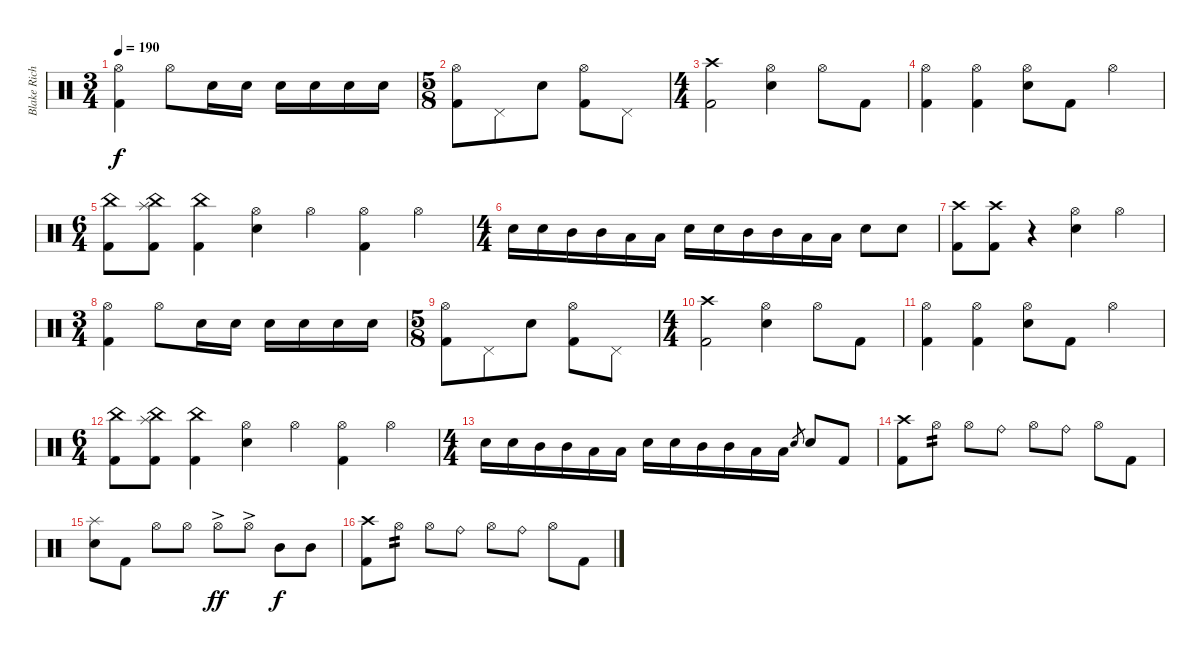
\track ("Blake Richardson" "Blake Rich") {instrument percussion}
\staff {score}
\articulation defaults
\ts (3 4)
\tempo 190
\clef neutral
\ks c
("Hi-Hat (open)" "Kick (hit) 2").4{dy f} "Hi-Hat (open)".8 "Electric Snare (hit)".16 "Electric Snare (hit)".16 "Electric Snare (hit)".16 "Electric Snare (hit)".16 "Electric Snare (hit)".16 "Electric Snare (hit)".16 |
\ts (5 8)
("Hi-Hat (open)" "Kick (hit) 2").8 "Pedal Hi-Hat (hit)".8 "Electric Snare (hit)".8 ("Hi-Hat (open)" "Kick (hit) 2").8 "Pedal Hi-Hat (hit)".8 |
\ts (4 4)
("Crash high (hit)" "Kick (hit) 2").2 ("Hi-Hat (open)" "Electric Snare (hit)").4 "Hi-Hat (open)".8 "Kick (hit) 2".8 |
("Hi-Hat (open)" "Kick (hit) 2").4 ("Hi-Hat (open)" "Kick (hit) 2").4 ("Hi-Hat (open)" "Electric Snare (hit)").8 "Kick (hit) 2".8 "Hi-Hat (open)".4 |
\ts (6 4)
("China (hit)" "Kick (hit) 2").8 ("China (hit)" "Splash (hit)" "Kick (hit) 2").8 ("China (hit)" "Kick (hit) 2").4 ("Hi-Hat (open)" "Electric Snare (hit)").4 "Hi-Hat (open)".4 ("Hi-Hat (open)" "Kick (hit) 2").4 "Hi-Hat (open)".4 |
\ts (4 4)
"Electric Snare (hit)".16 "Electric Snare (hit)".16 "Mid Tom (hit)".16 "Mid Tom (hit)".16{beam merge} "Low Tom (hit)".16 "Low Tom (hit)".16{beam split} "Electric Snare (hit)".16 "Electric Snare (hit)".16{beam merge} "Mid Tom (hit)".16 "Mid Tom (hit)".16 "Low Tom (hit)".16 "Low Tom (hit)".16 "Electric Snare (hit)".8 "Electric Snare (hit)".8 |
("Crash high (hit)" "Kick (hit) 2").8 ("Crash high (hit)" "Kick (hit) 2").8 r.4 ("Hi-Hat (open)" "Electric Snare (hit)").4 "Hi-Hat (open)".4 |
\ts (3 4)
("Hi-Hat (open)" "Kick (hit) 2").4 "Hi-Hat (open)".8 "Electric Snare (hit)".16 "Electric Snare (hit)".16 "Electric Snare (hit)".16 "Electric Snare (hit)".16 "Electric Snare (hit)".16 "Electric Snare (hit)".16 |
\ts (5 8)
("Hi-Hat (open)" "Kick (hit) 2").8 "Pedal Hi-Hat (hit)".8 "Electric Snare (hit)".8 ("Hi-Hat (open)" "Kick (hit) 2").8 "Pedal Hi-Hat (hit)".8 |
\ts (4 4)
("Crash high (hit)" "Kick (hit) 2").2 ("Hi-Hat (open)" "Electric Snare (hit)").4 "Hi-Hat (open)".8 "Kick (hit) 2".8 |
("Hi-Hat (open)" "Kick (hit) 2").4 ("Hi-Hat (open)" "Kick (hit) 2").4 ("Hi-Hat (open)" "Electric Snare (hit)").8 "Kick (hit) 2".8 "Hi-Hat (open)".4 |
\ts (6 4)
("China (hit)" "Kick (hit) 2").8 ("China (hit)" "Splash (hit)" "Kick (hit) 2").8 ("China (hit)" "Kick (hit) 2").4 ("Hi-Hat (open)" "Electric Snare (hit)").4 "Hi-Hat (open)".4 ("Hi-Hat (open)" "Kick (hit) 2").4 "Hi-Hat (open)".4 |
\ts (4 4)
"Electric Snare (hit)".16 "Electric Snare (hit)".16 "Mid Tom (hit)".16 "Mid Tom (hit)".16{beam merge} "Low Tom (hit)".16 "Low Tom (hit)".16{beam split} "Electric Snare (hit)".16 "Electric Snare (hit)".16{beam merge} "Mid Tom (hit)".16 "Mid Tom (hit)".16 "Low Tom (hit)".16 "Low Tom (hit)".16 "Electric Snare (hit)".8{gr} "Electric Snare (hit)".8 "Kick (hit) 2".8 |
("Crash high (hit)" "Kick (hit) 2").8 "Hi-Hat (open)".8{tp 2} "Hi-Hat (open)".8 "Ride (bell)".8 "Hi-Hat (open)".8 "Ride (bell)".8 "Hi-Hat (open)".8 "Kick (hit) 2".8 |
("Splash (hit)" "Electric Snare (hit)").8 "Kick (hit) 2".8 "Hi-Hat (open)".8 "Hi-Hat (open)".8 "Hi-Hat (open)"{ac}.8{dy ff} "Hi-Hat (open)"{ac}.8 "Mid Tom (hit)".8{dy f} "Mid Tom (hit)".8 |
("Crash high (hit)" "Kick (hit) 2").8 "Hi-Hat (open)".8{tp 2} "Hi-Hat (open)".8 "Ride (bell)".8 "Hi-Hat (open)".8 "Ride (bell)".8 "Hi-Hat (open)".8 "Kick (hit) 2".8
